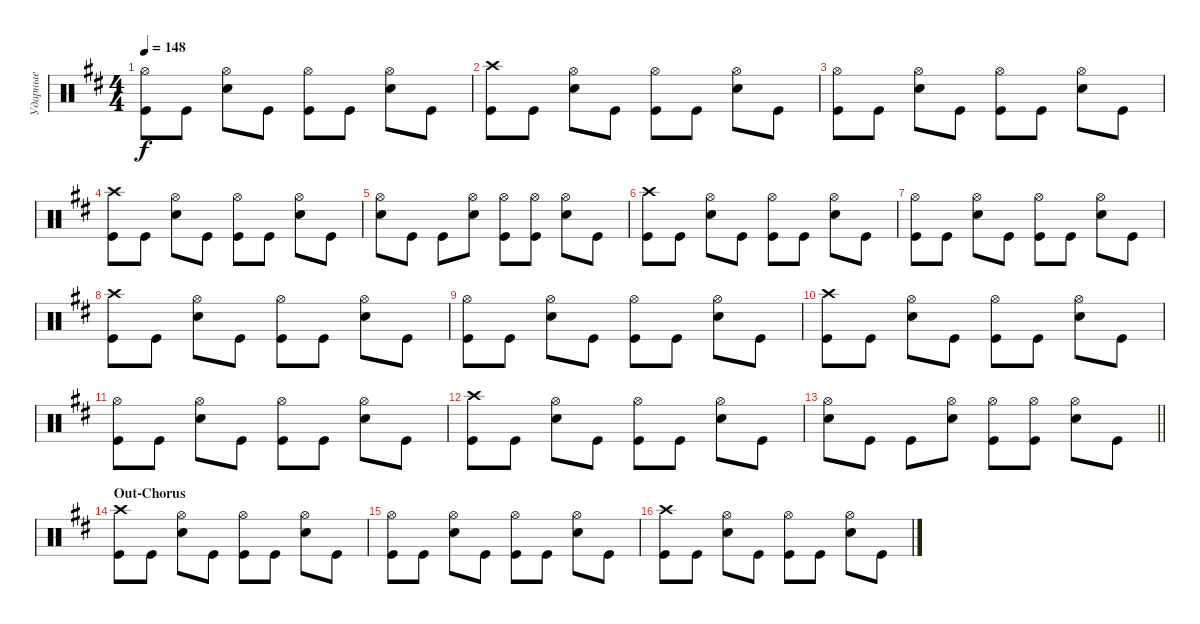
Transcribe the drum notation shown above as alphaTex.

\track ("Ударные" "Ударные") {instrument percussion}
\staff {score}
\articulation defaults
\ts (4 4)
\tempo 148
\clef neutral
\ks bminor
("Hi-Hat (open)" "Kick (hit)").8{dy f} "Kick (hit)".8 ("Snare (hit) 2" "Hi-Hat (open)").8 "Kick (hit)".8 ("Kick (hit)" "Hi-Hat (open)").8 "Kick (hit)".8 ("Snare (hit) 2" "Hi-Hat (open)").8 "Kick (hit)".8 |
("Crash high (hit)" "Kick (hit)").8 "Kick (hit)".8 ("Snare (hit) 2" "Hi-Hat (open)").8 "Kick (hit)".8 ("Kick (hit)" "Hi-Hat (open)").8 "Kick (hit)".8 ("Snare (hit) 2" "Hi-Hat (open)").8 "Kick (hit)".8 |
("Hi-Hat (open)" "Kick (hit)").8 "Kick (hit)".8 ("Snare (hit) 2" "Hi-Hat (open)").8 "Kick (hit)".8 ("Kick (hit)" "Hi-Hat (open)").8 "Kick (hit)".8 ("Snare (hit) 2" "Hi-Hat (open)").8 "Kick (hit)".8 |
("Crash high (hit)" "Kick (hit)").8 "Kick (hit)".8 ("Snare (hit) 2" "Hi-Hat (open)").8 "Kick (hit)".8 ("Kick (hit)" "Hi-Hat (open)").8 "Kick (hit)".8 ("Snare (hit) 2" "Hi-Hat (open)").8 "Kick (hit)".8 |
("Snare (hit) 2" "Hi-Hat (open)").8 "Kick (hit)".8 "Kick (hit)".8 ("Snare (hit) 2" "Hi-Hat (open)").8 ("Kick (hit)" "Hi-Hat (open)").8 ("Kick (hit)" "Hi-Hat (open)").8 ("Snare (hit) 2" "Hi-Hat (open)").8 "Kick (hit)".8 |
("Crash high (hit)" "Kick (hit)").8 "Kick (hit)".8 ("Snare (hit) 2" "Hi-Hat (open)").8 "Kick (hit)".8 ("Kick (hit)" "Hi-Hat (open)").8 "Kick (hit)".8 ("Snare (hit) 2" "Hi-Hat (open)").8 "Kick (hit)".8 |
("Hi-Hat (open)" "Kick (hit)").8 "Kick (hit)".8 ("Snare (hit) 2" "Hi-Hat (open)").8 "Kick (hit)".8 ("Kick (hit)" "Hi-Hat (open)").8 "Kick (hit)".8 ("Snare (hit) 2" "Hi-Hat (open)").8 "Kick (hit)".8 |
("Crash high (hit)" "Kick (hit)").8 "Kick (hit)".8 ("Snare (hit) 2" "Hi-Hat (open)").8 "Kick (hit)".8 ("Kick (hit)" "Hi-Hat (open)").8 "Kick (hit)".8 ("Snare (hit) 2" "Hi-Hat (open)").8 "Kick (hit)".8 |
("Hi-Hat (open)" "Kick (hit)").8 "Kick (hit)".8 ("Snare (hit) 2" "Hi-Hat (open)").8 "Kick (hit)".8 ("Kick (hit)" "Hi-Hat (open)").8 "Kick (hit)".8 ("Snare (hit) 2" "Hi-Hat (open)").8 "Kick (hit)".8 |
("Crash high (hit)" "Kick (hit)").8 "Kick (hit)".8 ("Snare (hit) 2" "Hi-Hat (open)").8 "Kick (hit)".8 ("Kick (hit)" "Hi-Hat (open)").8 "Kick (hit)".8 ("Snare (hit) 2" "Hi-Hat (open)").8 "Kick (hit)".8 |
("Hi-Hat (open)" "Kick (hit)").8 "Kick (hit)".8 ("Snare (hit) 2" "Hi-Hat (open)").8 "Kick (hit)".8 ("Kick (hit)" "Hi-Hat (open)").8 "Kick (hit)".8 ("Snare (hit) 2" "Hi-Hat (open)").8 "Kick (hit)".8 |
("Crash high (hit)" "Kick (hit)").8 "Kick (hit)".8 ("Snare (hit) 2" "Hi-Hat (open)").8 "Kick (hit)".8 ("Kick (hit)" "Hi-Hat (open)").8 "Kick (hit)".8 ("Snare (hit) 2" "Hi-Hat (open)").8 "Kick (hit)".8 |
\barLineRight lightlight
("Snare (hit) 2" "Hi-Hat (open)").8 "Kick (hit)".8 "Kick (hit)".8 ("Snare (hit) 2" "Hi-Hat (open)").8 ("Kick (hit)" "Hi-Hat (open)").8 ("Kick (hit)" "Hi-Hat (open)").8 ("Snare (hit) 2" "Hi-Hat (open)").8 "Kick (hit)".8 |
\section ("" "Out-Chorus")
("Crash high (hit)" "Kick (hit)").8 "Kick (hit)".8 ("Snare (hit) 2" "Hi-Hat (open)").8 "Kick (hit)".8 ("Kick (hit)" "Hi-Hat (open)").8 "Kick (hit)".8 ("Snare (hit) 2" "Hi-Hat (open)").8 "Kick (hit)".8 |
("Hi-Hat (open)" "Kick (hit)").8 "Kick (hit)".8 ("Snare (hit) 2" "Hi-Hat (open)").8 "Kick (hit)".8 ("Kick (hit)" "Hi-Hat (open)").8 "Kick (hit)".8 ("Snare (hit) 2" "Hi-Hat (open)").8 "Kick (hit)".8 |
("Crash high (hit)" "Kick (hit)").8 "Kick (hit)".8 ("Snare (hit) 2" "Hi-Hat (open)").8 "Kick (hit)".8 ("Kick (hit)" "Hi-Hat (open)").8 "Kick (hit)".8 ("Snare (hit) 2" "Hi-Hat (open)").8 "Kick (hit)".8
